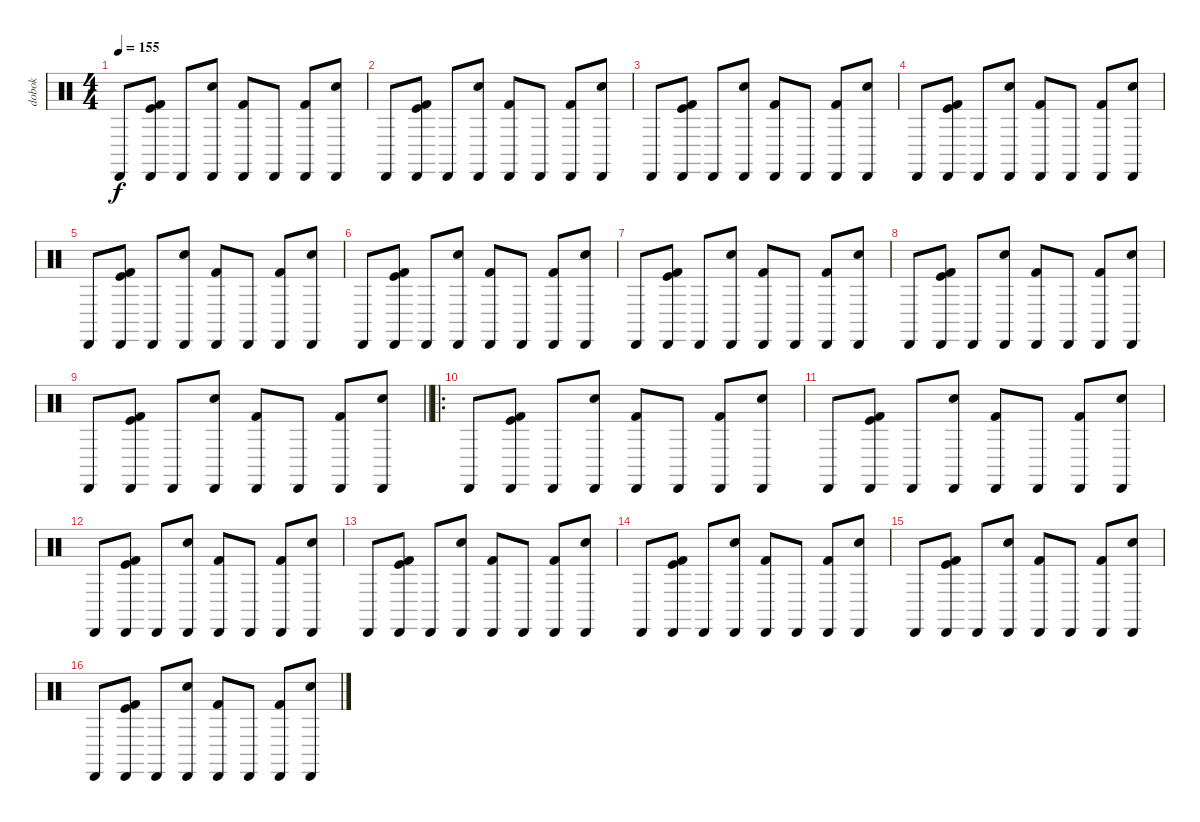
\track ("dobok" "dobok") {instrument percussion}
\staff {score}
\articulation defaults
\ts (4 4)
\tempo 155
\clef neutral
\ks c "Cabasa (hit)".8{dy f}
("Cabasa (hit)" "Kick (hit) 2" "Kick (hit)").8 "Cabasa (hit)".8 ("Cabasa (hit)" "Electric Snare (hit)").8 ("Cabasa (hit)" "Kick (hit) 2").8 "Cabasa (hit)".8 ("Cabasa (hit)" "Kick (hit) 2").8 ("Cabasa (hit)" "Electric Snare (hit)").8 |
"Cabasa (hit)".8 ("Cabasa (hit)" "Kick (hit) 2" "Kick (hit)").8 "Cabasa (hit)".8 ("Cabasa (hit)" "Electric Snare (hit)").8 ("Cabasa (hit)" "Kick (hit) 2").8 "Cabasa (hit)".8 ("Cabasa (hit)" "Kick (hit) 2").8 ("Cabasa (hit)" "Electric Snare (hit)").8 |
"Cabasa (hit)".8 ("Cabasa (hit)" "Kick (hit) 2" "Kick (hit)").8 "Cabasa (hit)".8 ("Cabasa (hit)" "Electric Snare (hit)").8 ("Cabasa (hit)" "Kick (hit) 2").8 "Cabasa (hit)".8 ("Cabasa (hit)" "Kick (hit) 2").8 ("Cabasa (hit)" "Electric Snare (hit)").8 |
"Cabasa (hit)".8 ("Cabasa (hit)" "Kick (hit) 2" "Kick (hit)").8 "Cabasa (hit)".8 ("Cabasa (hit)" "Electric Snare (hit)").8 ("Cabasa (hit)" "Kick (hit) 2").8 "Cabasa (hit)".8 ("Cabasa (hit)" "Kick (hit) 2").8 ("Cabasa (hit)" "Electric Snare (hit)").8 |
"Cabasa (hit)".8 ("Cabasa (hit)" "Kick (hit) 2" "Kick (hit)").8 "Cabasa (hit)".8 ("Cabasa (hit)" "Electric Snare (hit)").8 ("Cabasa (hit)" "Kick (hit) 2").8 "Cabasa (hit)".8 ("Cabasa (hit)" "Kick (hit) 2").8 ("Cabasa (hit)" "Electric Snare (hit)").8 |
"Cabasa (hit)".8 ("Cabasa (hit)" "Kick (hit) 2" "Kick (hit)").8 "Cabasa (hit)".8 ("Cabasa (hit)" "Electric Snare (hit)").8 ("Cabasa (hit)" "Kick (hit) 2").8 "Cabasa (hit)".8 ("Cabasa (hit)" "Kick (hit) 2").8 ("Cabasa (hit)" "Electric Snare (hit)").8 |
"Cabasa (hit)".8 ("Cabasa (hit)" "Kick (hit) 2" "Kick (hit)").8 "Cabasa (hit)".8 ("Cabasa (hit)" "Electric Snare (hit)").8 ("Cabasa (hit)" "Kick (hit) 2").8 "Cabasa (hit)".8 ("Cabasa (hit)" "Kick (hit) 2").8 ("Cabasa (hit)" "Electric Snare (hit)").8 |
"Cabasa (hit)".8 ("Cabasa (hit)" "Kick (hit) 2" "Kick (hit)").8 "Cabasa (hit)".8 ("Cabasa (hit)" "Electric Snare (hit)").8 ("Cabasa (hit)" "Kick (hit) 2").8 "Cabasa (hit)".8 ("Cabasa (hit)" "Kick (hit) 2").8 ("Cabasa (hit)" "Electric Snare (hit)").8 |
\barLineRight lightlight "Cabasa (hit)".8
("Cabasa (hit)" "Kick (hit) 2" "Kick (hit)").8 "Cabasa (hit)".8 ("Cabasa (hit)" "Electric Snare (hit)").8 ("Cabasa (hit)" "Kick (hit) 2").8 "Cabasa (hit)".8 ("Cabasa (hit)" "Kick (hit) 2").8 ("Cabasa (hit)" "Electric Snare (hit)").8 |
\ro "Cabasa (hit)".8
("Cabasa (hit)" "Kick (hit) 2" "Kick (hit)").8 "Cabasa (hit)".8 ("Cabasa (hit)" "Electric Snare (hit)").8 ("Cabasa (hit)" "Kick (hit) 2").8 "Cabasa (hit)".8 ("Cabasa (hit)" "Kick (hit) 2").8 ("Cabasa (hit)" "Electric Snare (hit)").8 |
"Cabasa (hit)".8 ("Cabasa (hit)" "Kick (hit) 2" "Kick (hit)").8 "Cabasa (hit)".8 ("Cabasa (hit)" "Electric Snare (hit)").8 ("Cabasa (hit)" "Kick (hit) 2").8 "Cabasa (hit)".8 ("Cabasa (hit)" "Kick (hit) 2").8 ("Cabasa (hit)" "Electric Snare (hit)").8 |
"Cabasa (hit)".8 ("Cabasa (hit)" "Kick (hit) 2" "Kick (hit)").8 "Cabasa (hit)".8 ("Cabasa (hit)" "Electric Snare (hit)").8 ("Cabasa (hit)" "Kick (hit) 2").8 "Cabasa (hit)".8 ("Cabasa (hit)" "Kick (hit) 2").8 ("Cabasa (hit)" "Electric Snare (hit)").8 |
"Cabasa (hit)".8 ("Cabasa (hit)" "Kick (hit) 2" "Kick (hit)").8 "Cabasa (hit)".8 ("Cabasa (hit)" "Electric Snare (hit)").8 ("Cabasa (hit)" "Kick (hit) 2").8 "Cabasa (hit)".8 ("Cabasa (hit)" "Kick (hit) 2").8 ("Cabasa (hit)" "Electric Snare (hit)").8 |
"Cabasa (hit)".8 ("Cabasa (hit)" "Kick (hit) 2" "Kick (hit)").8 "Cabasa (hit)".8 ("Cabasa (hit)" "Electric Snare (hit)").8 ("Cabasa (hit)" "Kick (hit) 2").8 "Cabasa (hit)".8 ("Cabasa (hit)" "Kick (hit) 2").8 ("Cabasa (hit)" "Electric Snare (hit)").8 |
"Cabasa (hit)".8 ("Cabasa (hit)" "Kick (hit) 2" "Kick (hit)").8 "Cabasa (hit)".8 ("Cabasa (hit)" "Electric Snare (hit)").8 ("Cabasa (hit)" "Kick (hit) 2").8 "Cabasa (hit)".8 ("Cabasa (hit)" "Kick (hit) 2").8 ("Cabasa (hit)" "Electric Snare (hit)").8 |
"Cabasa (hit)".8 ("Cabasa (hit)" "Kick (hit) 2" "Kick (hit)").8 "Cabasa (hit)".8 ("Cabasa (hit)" "Electric Snare (hit)").8 ("Cabasa (hit)" "Kick (hit) 2").8 "Cabasa (hit)".8 ("Cabasa (hit)" "Kick (hit) 2").8 ("Cabasa (hit)" "Electric Snare (hit)").8
